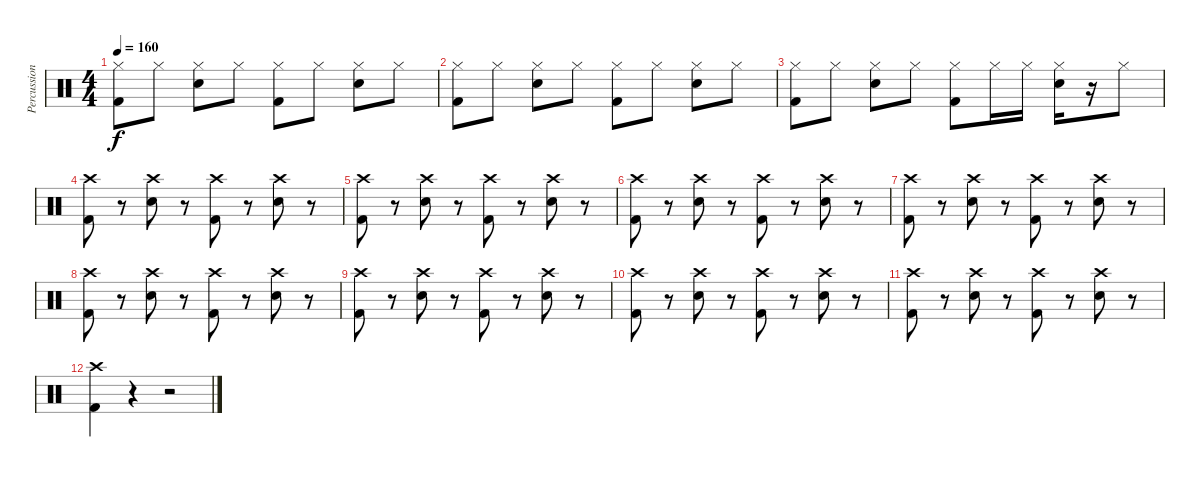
\track ("Percussions" "Percussion") {instrument percussion}
\staff {score}
\articulation defaults
\ts (4 4)
\tempo 160
\clef neutral
\ks c
("Hi-Hat (closed)" "Kick (hit) 2").8{dy f} "Hi-Hat (closed)".8 ("Hi-Hat (closed)" "Electric Snare (hit)").8 "Hi-Hat (closed)".8 ("Hi-Hat (closed)" "Kick (hit) 2").8 "Hi-Hat (closed)".8 ("Hi-Hat (closed)" "Electric Snare (hit)").8 "Hi-Hat (closed)".8 |
("Hi-Hat (closed)" "Kick (hit) 2").8 "Hi-Hat (closed)".8 ("Hi-Hat (closed)" "Electric Snare (hit)").8 "Hi-Hat (closed)".8 ("Hi-Hat (closed)" "Kick (hit) 2").8 "Hi-Hat (closed)".8 ("Hi-Hat (closed)" "Electric Snare (hit)").8 "Hi-Hat (closed)".8 |
("Hi-Hat (closed)" "Kick (hit) 2").8 "Hi-Hat (closed)".8 ("Hi-Hat (closed)" "Electric Snare (hit)").8 "Hi-Hat (closed)".8 ("Hi-Hat (closed)" "Kick (hit) 2").8 "Hi-Hat (closed)".16 "Hi-Hat (closed)".16 ("Hi-Hat (closed)" "Electric Snare (hit)").16 r.16 "Hi-Hat (closed)".8 |
("Crash high (hit)" "Kick (hit) 2").8 r.8 ("Crash high (hit)" "Electric Snare (hit)").8 r.8 ("Crash high (hit)" "Kick (hit) 2").8 r.8 ("Crash high (hit)" "Electric Snare (hit)").8 r.8 |
("Crash high (hit)" "Kick (hit) 2").8 r.8 ("Crash high (hit)" "Electric Snare (hit)").8 r.8 ("Crash high (hit)" "Kick (hit) 2").8 r.8 ("Crash high (hit)" "Electric Snare (hit)").8 r.8 |
("Crash high (hit)" "Kick (hit) 2").8 r.8 ("Crash high (hit)" "Electric Snare (hit)").8 r.8 ("Crash high (hit)" "Kick (hit) 2").8 r.8 ("Crash high (hit)" "Electric Snare (hit)").8 r.8 |
("Crash high (hit)" "Kick (hit) 2").8 r.8 ("Crash high (hit)" "Electric Snare (hit)").8 r.8 ("Crash high (hit)" "Kick (hit) 2").8 r.8 ("Crash high (hit)" "Electric Snare (hit)").8 r.8 |
("Crash high (hit)" "Kick (hit) 2").8 r.8 ("Crash high (hit)" "Electric Snare (hit)").8 r.8 ("Crash high (hit)" "Kick (hit) 2").8 r.8 ("Crash high (hit)" "Electric Snare (hit)").8 r.8 |
("Crash high (hit)" "Kick (hit) 2").8 r.8 ("Crash high (hit)" "Electric Snare (hit)").8 r.8 ("Crash high (hit)" "Kick (hit) 2").8 r.8 ("Crash high (hit)" "Electric Snare (hit)").8 r.8 |
("Crash high (hit)" "Kick (hit) 2").8 r.8 ("Crash high (hit)" "Electric Snare (hit)").8 r.8 ("Crash high (hit)" "Kick (hit) 2").8 r.8 ("Crash high (hit)" "Electric Snare (hit)").8 r.8 |
("Crash high (hit)" "Kick (hit) 2").8 r.8 ("Crash high (hit)" "Electric Snare (hit)").8 r.8 ("Crash high (hit)" "Kick (hit) 2").8 r.8 ("Crash high (hit)" "Electric Snare (hit)").8 r.8 |
("Crash high (hit)" "Kick (hit) 2").4 r.4 r.2
